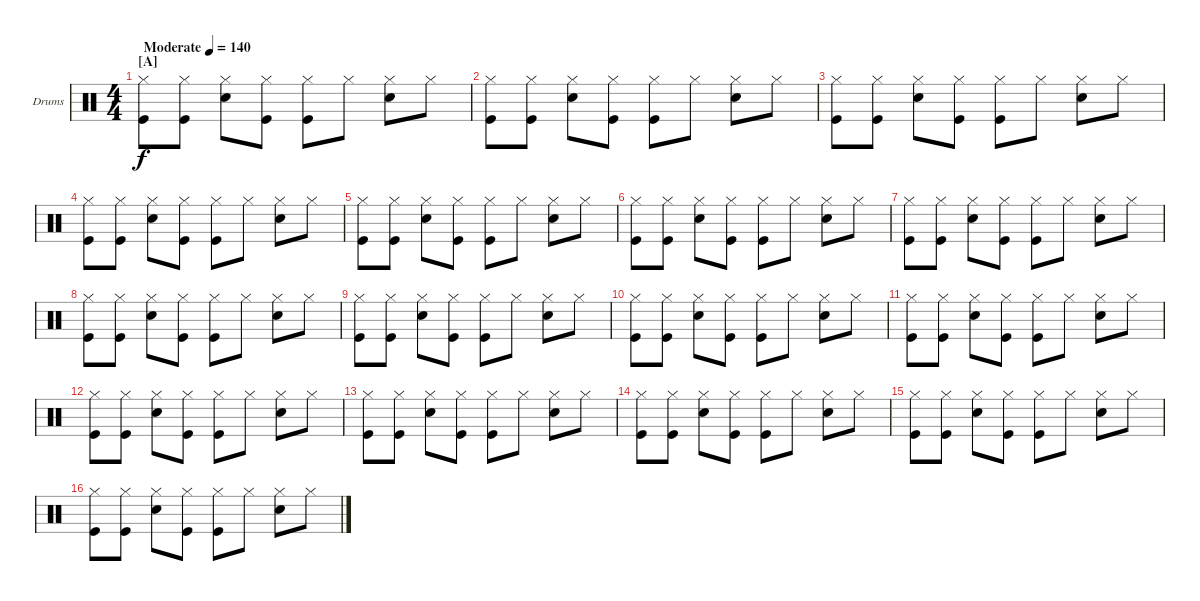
\bracketExtendMode groupsimilarinstruments
\firstSystemTrackNameOrientation horizontal
\otherSystemsTrackNameOrientation horizontal
\track ("Fabrizio Moretti" "Drums") {instrument percussion}
\staff {score}
\articulation defaults
\ts (4 4)
\beaming (8 2 2 2 2)
\section ("A" "")
\tempo (140 "Moderate")
\clef neutral
\ks aminor
("Kick (hit)" "Hi-Hat (closed)").8{dy f} ("Kick (hit)" "Hi-Hat (closed)").8 ("Snare (hit) 2" "Hi-Hat (closed)").8 ("Kick (hit)" "Hi-Hat (closed)").8 ("Kick (hit)" "Hi-Hat (closed)").8 "Hi-Hat (closed)".8 ("Snare (hit) 2" "Hi-Hat (closed)").8 "Hi-Hat (closed)".8 |
("Kick (hit)" "Hi-Hat (closed)").8 ("Kick (hit)" "Hi-Hat (closed)").8 ("Snare (hit) 2" "Hi-Hat (closed)").8 ("Kick (hit)" "Hi-Hat (closed)").8 ("Kick (hit)" "Hi-Hat (closed)").8 "Hi-Hat (closed)".8 ("Snare (hit) 2" "Hi-Hat (closed)").8 "Hi-Hat (closed)".8 |
("Kick (hit)" "Hi-Hat (closed)").8 ("Kick (hit)" "Hi-Hat (closed)").8 ("Snare (hit) 2" "Hi-Hat (closed)").8 ("Kick (hit)" "Hi-Hat (closed)").8 ("Kick (hit)" "Hi-Hat (closed)").8 "Hi-Hat (closed)".8 ("Snare (hit) 2" "Hi-Hat (closed)").8 "Hi-Hat (closed)".8 |
("Kick (hit)" "Hi-Hat (closed)").8 ("Kick (hit)" "Hi-Hat (closed)").8 ("Snare (hit) 2" "Hi-Hat (closed)").8 ("Kick (hit)" "Hi-Hat (closed)").8 ("Kick (hit)" "Hi-Hat (closed)").8 "Hi-Hat (closed)".8 ("Snare (hit) 2" "Hi-Hat (closed)").8 "Hi-Hat (closed)".8 |
("Kick (hit)" "Hi-Hat (closed)").8 ("Kick (hit)" "Hi-Hat (closed)").8 ("Snare (hit) 2" "Hi-Hat (closed)").8 ("Kick (hit)" "Hi-Hat (closed)").8 ("Kick (hit)" "Hi-Hat (closed)").8 "Hi-Hat (closed)".8 ("Snare (hit) 2" "Hi-Hat (closed)").8 "Hi-Hat (closed)".8 |
("Kick (hit)" "Hi-Hat (closed)").8 ("Kick (hit)" "Hi-Hat (closed)").8 ("Snare (hit) 2" "Hi-Hat (closed)").8 ("Kick (hit)" "Hi-Hat (closed)").8 ("Kick (hit)" "Hi-Hat (closed)").8 "Hi-Hat (closed)".8 ("Snare (hit) 2" "Hi-Hat (closed)").8 "Hi-Hat (closed)".8 |
("Kick (hit)" "Hi-Hat (closed)").8 ("Kick (hit)" "Hi-Hat (closed)").8 ("Snare (hit) 2" "Hi-Hat (closed)").8 ("Kick (hit)" "Hi-Hat (closed)").8 ("Kick (hit)" "Hi-Hat (closed)").8 "Hi-Hat (closed)".8 ("Snare (hit) 2" "Hi-Hat (closed)").8 "Hi-Hat (closed)".8 |
("Kick (hit)" "Hi-Hat (closed)").8 ("Kick (hit)" "Hi-Hat (closed)").8 ("Snare (hit) 2" "Hi-Hat (closed)").8 ("Kick (hit)" "Hi-Hat (closed)").8 ("Kick (hit)" "Hi-Hat (closed)").8 "Hi-Hat (closed)".8 ("Snare (hit) 2" "Hi-Hat (closed)").8 "Hi-Hat (closed)".8 |
("Kick (hit)" "Hi-Hat (closed)").8 ("Kick (hit)" "Hi-Hat (closed)").8 ("Snare (hit) 2" "Hi-Hat (closed)").8 ("Kick (hit)" "Hi-Hat (closed)").8 ("Kick (hit)" "Hi-Hat (closed)").8 "Hi-Hat (closed)".8 ("Snare (hit) 2" "Hi-Hat (closed)").8 "Hi-Hat (closed)".8 |
("Kick (hit)" "Hi-Hat (closed)").8 ("Kick (hit)" "Hi-Hat (closed)").8 ("Snare (hit) 2" "Hi-Hat (closed)").8 ("Kick (hit)" "Hi-Hat (closed)").8 ("Kick (hit)" "Hi-Hat (closed)").8 "Hi-Hat (closed)".8 ("Snare (hit) 2" "Hi-Hat (closed)").8 "Hi-Hat (closed)".8 |
("Kick (hit)" "Hi-Hat (closed)").8 ("Kick (hit)" "Hi-Hat (closed)").8 ("Snare (hit) 2" "Hi-Hat (closed)").8 ("Kick (hit)" "Hi-Hat (closed)").8 ("Kick (hit)" "Hi-Hat (closed)").8 "Hi-Hat (closed)".8 ("Snare (hit) 2" "Hi-Hat (closed)").8 "Hi-Hat (closed)".8 |
("Kick (hit)" "Hi-Hat (closed)").8 ("Kick (hit)" "Hi-Hat (closed)").8 ("Snare (hit) 2" "Hi-Hat (closed)").8 ("Kick (hit)" "Hi-Hat (closed)").8 ("Kick (hit)" "Hi-Hat (closed)").8 "Hi-Hat (closed)".8 ("Snare (hit) 2" "Hi-Hat (closed)").8 "Hi-Hat (closed)".8 |
("Kick (hit)" "Hi-Hat (closed)").8 ("Kick (hit)" "Hi-Hat (closed)").8 ("Snare (hit) 2" "Hi-Hat (closed)").8 ("Kick (hit)" "Hi-Hat (closed)").8 ("Kick (hit)" "Hi-Hat (closed)").8 "Hi-Hat (closed)".8 ("Snare (hit) 2" "Hi-Hat (closed)").8 "Hi-Hat (closed)".8 |
("Kick (hit)" "Hi-Hat (closed)").8 ("Kick (hit)" "Hi-Hat (closed)").8 ("Snare (hit) 2" "Hi-Hat (closed)").8 ("Kick (hit)" "Hi-Hat (closed)").8 ("Kick (hit)" "Hi-Hat (closed)").8 "Hi-Hat (closed)".8 ("Snare (hit) 2" "Hi-Hat (closed)").8 "Hi-Hat (closed)".8 |
("Kick (hit)" "Hi-Hat (closed)").8 ("Kick (hit)" "Hi-Hat (closed)").8 ("Snare (hit) 2" "Hi-Hat (closed)").8 ("Kick (hit)" "Hi-Hat (closed)").8 ("Kick (hit)" "Hi-Hat (closed)").8 "Hi-Hat (closed)".8 ("Snare (hit) 2" "Hi-Hat (closed)").8 "Hi-Hat (closed)".8 |
("Kick (hit)" "Hi-Hat (closed)").8 ("Kick (hit)" "Hi-Hat (closed)").8 ("Snare (hit) 2" "Hi-Hat (closed)").8 ("Kick (hit)" "Hi-Hat (closed)").8 ("Kick (hit)" "Hi-Hat (closed)").8 "Hi-Hat (closed)".8 ("Snare (hit) 2" "Hi-Hat (closed)").8 "Hi-Hat (closed)".8
